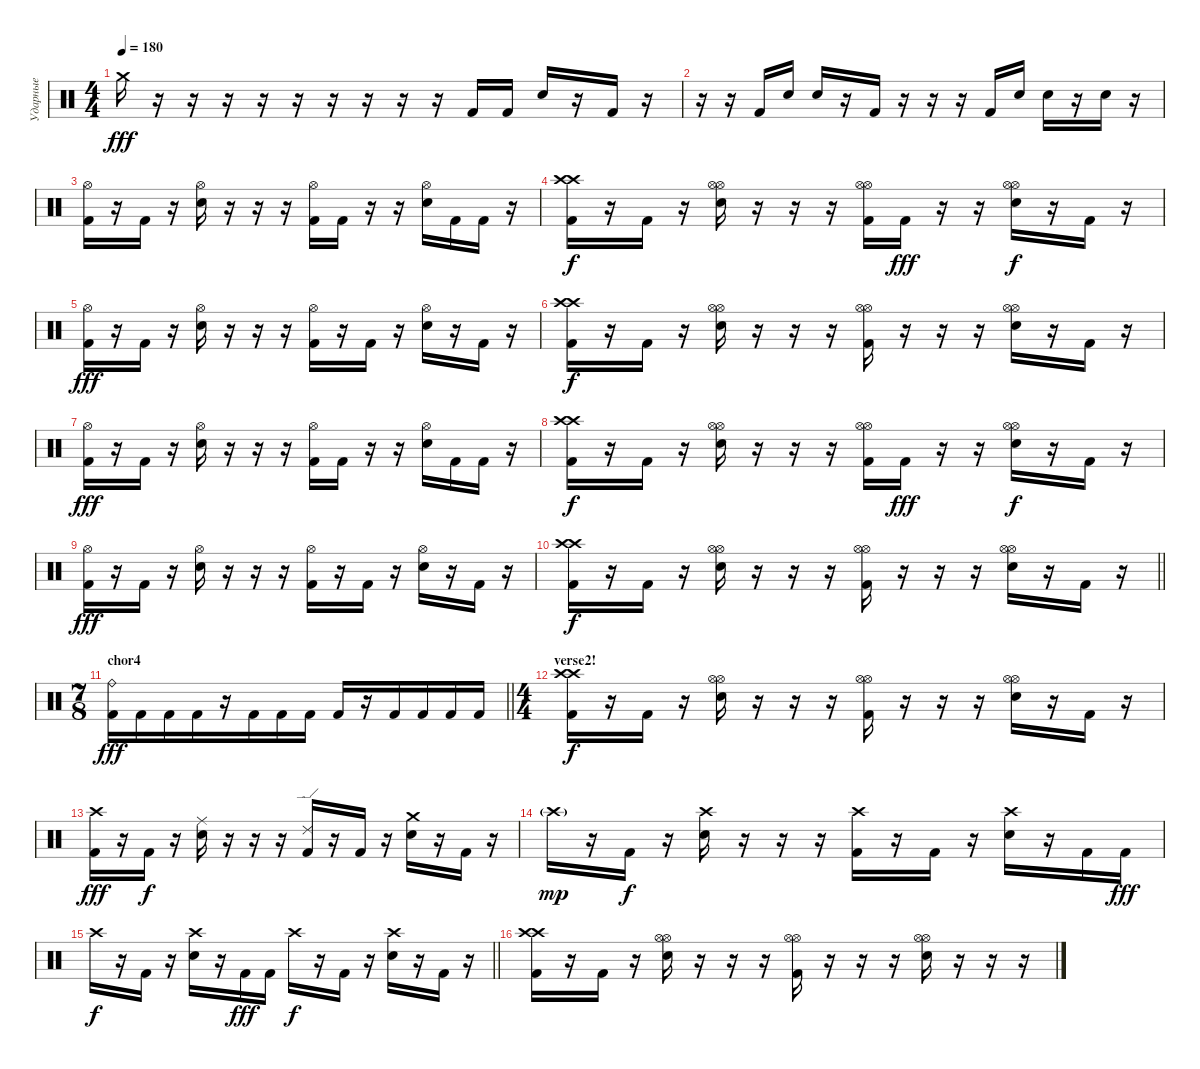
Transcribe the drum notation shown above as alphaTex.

\track ("Ударные" "Ударные") {instrument percussion}
\staff {score}
\articulation defaults
\ts (4 4)
\tempo 180
\clef neutral
\ks c "Crash medium (hit)".16{dy fff}
r.16 r.16 r.16 r.16 r.16 r.16 r.16 r.16 r.16 "Kick (hit) 2".16 "Kick (hit) 2".16 "Electric Snare (hit)".16 r.16 "Kick (hit) 2".16 r.16 |
r.16 r.16 "Kick (hit) 2".16 "Electric Snare (hit)".16 "Electric Snare (hit)".16 r.16 "Kick (hit) 2".16 r.16 r.16 r.16 "Kick (hit) 2".16 "Electric Snare (hit)".16 "Electric Snare (hit)".16 r.16 "Electric Snare (hit)".16 r.16 |
("Hi-Hat (open)" "Kick (hit) 2").16 r.16 "Kick (hit) 2".16 r.16 ("Hi-Hat (open)" "Electric Snare (hit)").16 r.16 r.16 r.16 ("Hi-Hat (open)" "Kick (hit) 2").16 "Kick (hit) 2".16 r.16 r.16 ("Hi-Hat (open)" "Electric Snare (hit)").16 "Kick (hit) 2".16 "Kick (hit) 2".16 r.16 |
("Crash high (hit)" "Crash high (hit)" "Kick (hit) 2").16{dy f} r.16 "Kick (hit) 2".16 r.16 ("Hi-Hat (open)" "Hi-Hat (open)" "Electric Snare (hit)").16 r.16 r.16 r.16 ("Hi-Hat (open)" "Hi-Hat (open)" "Kick (hit) 2").16 "Kick (hit) 2".16{dy fff} r.16 r.16 ("Hi-Hat (open)" "Hi-Hat (open)" "Electric Snare (hit)").16{dy f} r.16 "Kick (hit) 2".16 r.16 |
("Hi-Hat (open)" "Kick (hit) 2").16{dy fff} r.16 "Kick (hit) 2".16 r.16 ("Hi-Hat (open)" "Electric Snare (hit)").16 r.16 r.16 r.16 ("Hi-Hat (open)" "Kick (hit) 2").16 r.16 "Kick (hit) 2".16 r.16 ("Hi-Hat (open)" "Electric Snare (hit)").16 r.16 "Kick (hit) 2".16 r.16 |
("Crash high (hit)" "Crash high (hit)" "Kick (hit) 2").16{dy f} r.16 "Kick (hit) 2".16 r.16 ("Hi-Hat (open)" "Hi-Hat (open)" "Electric Snare (hit)").16 r.16 r.16 r.16 ("Hi-Hat (open)" "Hi-Hat (open)" "Kick (hit) 2").16 r.16 r.16 r.16 ("Hi-Hat (open)" "Hi-Hat (open)" "Electric Snare (hit)").16 r.16 "Kick (hit) 2".16 r.16 |
("Hi-Hat (open)" "Kick (hit) 2").16{dy fff} r.16 "Kick (hit) 2".16 r.16 ("Hi-Hat (open)" "Electric Snare (hit)").16 r.16 r.16 r.16 ("Hi-Hat (open)" "Kick (hit) 2").16 "Kick (hit) 2".16 r.16 r.16 ("Hi-Hat (open)" "Electric Snare (hit)").16 "Kick (hit) 2".16 "Kick (hit) 2".16 r.16 |
("Crash high (hit)" "Crash high (hit)" "Kick (hit) 2").16{dy f} r.16 "Kick (hit) 2".16 r.16 ("Hi-Hat (open)" "Hi-Hat (open)" "Electric Snare (hit)").16 r.16 r.16 r.16 ("Hi-Hat (open)" "Hi-Hat (open)" "Kick (hit) 2").16 "Kick (hit) 2".16{dy fff} r.16 r.16 ("Hi-Hat (open)" "Hi-Hat (open)" "Electric Snare (hit)").16{dy f} r.16 "Kick (hit) 2".16 r.16 |
("Hi-Hat (open)" "Kick (hit) 2").16{dy fff} r.16 "Kick (hit) 2".16 r.16 ("Hi-Hat (open)" "Electric Snare (hit)").16 r.16 r.16 r.16 ("Hi-Hat (open)" "Kick (hit) 2").16 r.16 "Kick (hit) 2".16 r.16 ("Hi-Hat (open)" "Electric Snare (hit)").16 r.16 "Kick (hit) 2".16 r.16 |
\barLineRight lightlight
("Crash high (hit)" "Crash high (hit)" "Kick (hit) 2").16{dy f} r.16 "Kick (hit) 2".16 r.16 ("Hi-Hat (open)" "Hi-Hat (open)" "Electric Snare (hit)").16 r.16 r.16 r.16 ("Hi-Hat (open)" "Hi-Hat (open)" "Kick (hit) 2").16 r.16 r.16 r.16 ("Hi-Hat (open)" "Hi-Hat (open)" "Electric Snare (hit)").16 r.16 "Kick (hit) 2".16 r.16 |
\ts (7 8)
\section ("" "chor4")
\barLineRight lightlight
("Ride (bell)" "Kick (hit) 2").16{dy fff} "Kick (hit) 2".16 "Kick (hit) 2".16 "Kick (hit) 2".16 r.16 "Kick (hit) 2".16 "Kick (hit) 2".16 "Kick (hit) 2".16 "Kick (hit) 2".16 r.16 "Kick (hit) 2".16 "Kick (hit) 2".16 "Kick (hit) 2".16 "Kick (hit) 2".16 |
\ts (4 4)
\section ("" "verse2!")
("Crash high (hit)" "Crash high (hit)" "Kick (hit) 2").16{dy f} r.16 "Kick (hit) 2".16 r.16 ("Hi-Hat (open)" "Hi-Hat (open)" "Electric Snare (hit)").16 r.16 r.16 r.16 ("Hi-Hat (open)" "Hi-Hat (open)" "Kick (hit) 2").16 r.16 r.16 r.16 ("Hi-Hat (open)" "Hi-Hat (open)" "Electric Snare (hit)").16 r.16 "Kick (hit) 2".16 r.16 |
("Crash high (hit)" "Kick (hit) 2").16{dy fff} r.16 "Kick (hit) 2".16{dy f} r.16 ("Ride (middle)" "Electric Snare (hit)").16 r.16 r.16 r.16 ("Ride (edge) 2" "Kick (hit) 2").16 r.16 "Kick (hit) 2".16 r.16 ("Crash medium (hit)" "Electric Snare (hit)").16 r.16 "Kick (hit) 2".16 r.16 |
"Crash high (hit)"{g}.16{dy mp} r.16 "Kick (hit) 2".16{dy f} r.16 ("Crash high (hit)" "Electric Snare (hit)").16 r.16 r.16 r.16 ("Crash high (hit)" "Kick (hit) 2").16 r.16 "Kick (hit) 2".16 r.16 ("Crash high (hit)" "Electric Snare (hit)").16 r.16 "Kick (hit) 2".16 "Kick (hit) 2".16{dy fff} |
\barLineRight lightlight "Crash high (hit)".16{dy f}
r.16 "Kick (hit) 2".16 r.16 ("Crash high (hit)" "Electric Snare (hit)").16 r.16 "Kick (hit) 2".16{dy fff} "Kick (hit) 2".16 "Crash high (hit)".16{dy f} r.16 "Kick (hit) 2".16 r.16 ("Crash high (hit)" "Electric Snare (hit)").16 r.16 "Kick (hit) 2".16 r.16 |
("Crash high (hit)" "Crash high (hit)" "Kick (hit) 2").16 r.16 "Kick (hit) 2".16 r.16 ("Hi-Hat (open)" "Hi-Hat (open)" "Electric Snare (hit)").16 r.16 r.16 r.16 ("Hi-Hat (open)" "Hi-Hat (open)" "Kick (hit) 2").16 r.16 r.16 r.16 ("Hi-Hat (open)" "Hi-Hat (open)" "Electric Snare (hit)").16 r.16 r.16 r.16
